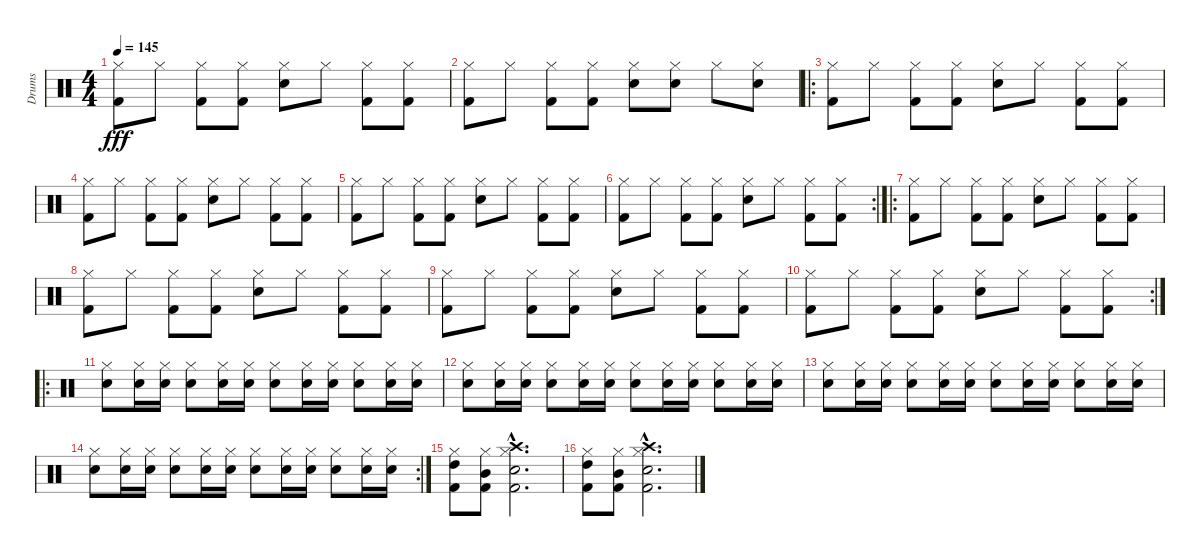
\track ("Drums" "Drums") {instrument percussion}
\staff {score}
\articulation defaults
\ts (4 4)
\tempo 145
\clef neutral
\ks c
("Hi-Hat (closed)" "Kick (hit) 2").8{dy fff} "Hi-Hat (closed)".8 ("Hi-Hat (closed)" "Kick (hit) 2").8 ("Hi-Hat (closed)" "Kick (hit) 2").8 ("Hi-Hat (closed)" "Snare (hit) 2").8 "Hi-Hat (closed)".8 ("Hi-Hat (closed)" "Kick (hit) 2").8 ("Hi-Hat (closed)" "Kick (hit) 2").8 |
("Hi-Hat (closed)" "Kick (hit) 2").8 "Hi-Hat (closed)".8 ("Hi-Hat (closed)" "Kick (hit) 2").8 ("Hi-Hat (closed)" "Kick (hit) 2").8 ("Hi-Hat (closed)" "Snare (hit) 2").8 ("Hi-Hat (closed)" "Snare (hit) 2").8 "Hi-Hat (closed)".8 ("Hi-Hat (closed)" "Snare (hit) 2").8 |
\ro
("Hi-Hat (closed)" "Kick (hit) 2").8 "Hi-Hat (closed)".8 ("Hi-Hat (closed)" "Kick (hit) 2").8 ("Hi-Hat (closed)" "Kick (hit) 2").8 ("Hi-Hat (closed)" "Snare (hit) 2").8 "Hi-Hat (closed)".8 ("Hi-Hat (closed)" "Kick (hit) 2").8 ("Hi-Hat (closed)" "Kick (hit) 2").8 |
("Hi-Hat (closed)" "Kick (hit) 2").8 "Hi-Hat (closed)".8 ("Hi-Hat (closed)" "Kick (hit) 2").8 ("Hi-Hat (closed)" "Kick (hit) 2").8 ("Hi-Hat (closed)" "Snare (hit) 2").8 "Hi-Hat (closed)".8 ("Hi-Hat (closed)" "Kick (hit) 2").8 ("Hi-Hat (closed)" "Kick (hit) 2").8 |
("Hi-Hat (closed)" "Kick (hit) 2").8 "Hi-Hat (closed)".8 ("Hi-Hat (closed)" "Kick (hit) 2").8 ("Hi-Hat (closed)" "Kick (hit) 2").8 ("Hi-Hat (closed)" "Snare (hit) 2").8 "Hi-Hat (closed)".8 ("Hi-Hat (closed)" "Kick (hit) 2").8 ("Hi-Hat (closed)" "Kick (hit) 2").8 |
\rc 2
("Hi-Hat (closed)" "Kick (hit) 2").8 "Hi-Hat (closed)".8 ("Hi-Hat (closed)" "Kick (hit) 2").8 ("Hi-Hat (closed)" "Kick (hit) 2").8 ("Hi-Hat (closed)" "Snare (hit) 2").8 "Hi-Hat (closed)".8 ("Hi-Hat (closed)" "Kick (hit) 2").8 ("Hi-Hat (closed)" "Kick (hit) 2").8 |
\ro
("Hi-Hat (closed)" "Kick (hit) 2").8 "Hi-Hat (closed)".8 ("Hi-Hat (closed)" "Kick (hit) 2").8 ("Hi-Hat (closed)" "Kick (hit) 2").8 ("Hi-Hat (closed)" "Snare (hit) 2").8 "Hi-Hat (closed)".8 ("Hi-Hat (closed)" "Kick (hit) 2").8 ("Hi-Hat (closed)" "Kick (hit) 2").8 |
("Hi-Hat (closed)" "Kick (hit) 2").8 "Hi-Hat (closed)".8 ("Hi-Hat (closed)" "Kick (hit) 2").8 ("Hi-Hat (closed)" "Kick (hit) 2").8 ("Hi-Hat (closed)" "Snare (hit) 2").8 "Hi-Hat (closed)".8 ("Hi-Hat (closed)" "Kick (hit) 2").8 ("Hi-Hat (closed)" "Kick (hit) 2").8 |
("Hi-Hat (closed)" "Kick (hit) 2").8 "Hi-Hat (closed)".8 ("Hi-Hat (closed)" "Kick (hit) 2").8 ("Hi-Hat (closed)" "Kick (hit) 2").8 ("Hi-Hat (closed)" "Snare (hit) 2").8 "Hi-Hat (closed)".8 ("Hi-Hat (closed)" "Kick (hit) 2").8 ("Hi-Hat (closed)" "Kick (hit) 2").8 |
\rc 2
("Hi-Hat (closed)" "Kick (hit) 2").8 "Hi-Hat (closed)".8 ("Hi-Hat (closed)" "Kick (hit) 2").8 ("Hi-Hat (closed)" "Kick (hit) 2").8 ("Hi-Hat (closed)" "Snare (hit) 2").8 "Hi-Hat (closed)".8 ("Hi-Hat (closed)" "Kick (hit) 2").8 ("Hi-Hat (closed)" "Kick (hit) 2").8 |
\ro
("Hi-Hat (closed)" "Snare (hit) 2").8 ("Hi-Hat (closed)" "Snare (hit) 2").16 ("Hi-Hat (closed)" "Snare (hit) 2").16 ("Hi-Hat (closed)" "Snare (hit) 2").8 ("Hi-Hat (closed)" "Snare (hit) 2").16 ("Hi-Hat (closed)" "Snare (hit) 2").16 ("Hi-Hat (closed)" "Snare (hit) 2").8 ("Hi-Hat (closed)" "Snare (hit) 2").16 ("Hi-Hat (closed)" "Snare (hit) 2").16 ("Hi-Hat (closed)" "Snare (hit) 2").8 ("Hi-Hat (closed)" "Snare (hit) 2").16 ("Hi-Hat (closed)" "Snare (hit) 2").16 |
("Hi-Hat (closed)" "Snare (hit) 2").8 ("Hi-Hat (closed)" "Snare (hit) 2").16 ("Hi-Hat (closed)" "Snare (hit) 2").16 ("Hi-Hat (closed)" "Snare (hit) 2").8 ("Hi-Hat (closed)" "Snare (hit) 2").16 ("Hi-Hat (closed)" "Snare (hit) 2").16 ("Hi-Hat (closed)" "Snare (hit) 2").8 ("Hi-Hat (closed)" "Snare (hit) 2").16 ("Hi-Hat (closed)" "Snare (hit) 2").16 ("Hi-Hat (closed)" "Snare (hit) 2").8 ("Hi-Hat (closed)" "Snare (hit) 2").16 ("Hi-Hat (closed)" "Snare (hit) 2").16 |
("Hi-Hat (closed)" "Snare (hit) 2").8 ("Hi-Hat (closed)" "Snare (hit) 2").16 ("Hi-Hat (closed)" "Snare (hit) 2").16 ("Hi-Hat (closed)" "Snare (hit) 2").8 ("Hi-Hat (closed)" "Snare (hit) 2").16 ("Hi-Hat (closed)" "Snare (hit) 2").16 ("Hi-Hat (closed)" "Snare (hit) 2").8 ("Hi-Hat (closed)" "Snare (hit) 2").16 ("Hi-Hat (closed)" "Snare (hit) 2").16 ("Hi-Hat (closed)" "Snare (hit) 2").8 ("Hi-Hat (closed)" "Snare (hit) 2").16 ("Hi-Hat (closed)" "Snare (hit) 2").16 |
\rc 2
("Hi-Hat (closed)" "Snare (hit) 2").8 ("Hi-Hat (closed)" "Snare (hit) 2").16 ("Hi-Hat (closed)" "Snare (hit) 2").16 ("Hi-Hat (closed)" "Snare (hit) 2").8 ("Hi-Hat (closed)" "Snare (hit) 2").16 ("Hi-Hat (closed)" "Snare (hit) 2").16 ("Hi-Hat (closed)" "Snare (hit) 2").8 ("Hi-Hat (closed)" "Snare (hit) 2").16 ("Hi-Hat (closed)" "Snare (hit) 2").16 ("Hi-Hat (closed)" "Snare (hit) 2").8 ("Hi-Hat (closed)" "Snare (hit) 2").16 ("Hi-Hat (closed)" "Snare (hit) 2").16 |
("High Tom (hit)" "Hi-Hat (closed)" "Kick (hit) 2").8 ("Mid Tom (hit)" "Hi-Hat (closed)" "Kick (hit) 2").8 ("Hi-Hat (closed)"{hac} "Snare (hit) 2"{hac} "Crash high (hit)"{hac} "Kick (hit) 2"{hac}).2{d} |
("High Tom (hit)" "Hi-Hat (closed)" "Kick (hit) 2").8 ("Mid Tom (hit)" "Hi-Hat (closed)" "Kick (hit) 2").8 ("Hi-Hat (closed)"{hac} "Snare (hit) 2"{hac} "Crash high (hit)"{hac} "Kick (hit) 2"{hac}).2{d}
